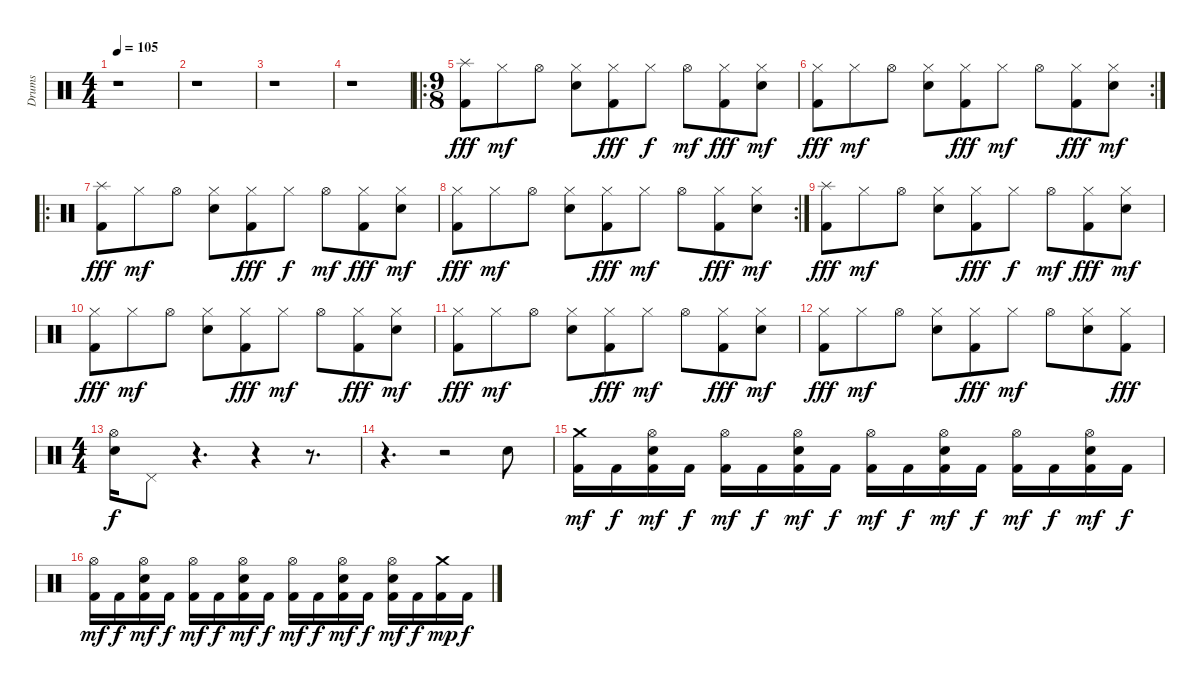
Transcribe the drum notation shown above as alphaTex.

\track ("Drums" "Drums") {instrument percussion}
\staff {score}
\articulation defaults
\ts (4 4)
\tempo 105
\clef neutral
\ks c
r.1{dy mp} |
r.1 |
r.1 |
r.1 |
\ro
\ts (9 8)
("Splash (hit)" "Kick (hit) 2").8{dy fff} "Hi-Hat (closed)".8{dy mf} "Hi-Hat (open)".8 ("Hi-Hat (closed)" "Electric Snare (hit)").8 ("Hi-Hat (closed)" "Kick (hit) 2").8{dy fff} "Hi-Hat (closed)".8{dy f} "Hi-Hat (open)".8{dy mf} ("Hi-Hat (closed)" "Kick (hit) 2").8{dy fff} ("Hi-Hat (closed)" "Electric Snare (hit)").8{dy mf} |
\rc 2
("Hi-Hat (closed)" "Kick (hit) 2").8{dy fff} "Hi-Hat (closed)".8{dy mf} "Hi-Hat (open)".8 ("Hi-Hat (closed)" "Electric Snare (hit)").8 ("Hi-Hat (closed)" "Kick (hit) 2").8{dy fff} "Hi-Hat (closed)".8{dy mf} "Hi-Hat (open)".8 ("Hi-Hat (closed)" "Kick (hit) 2").8{dy fff} ("Hi-Hat (closed)" "Electric Snare (hit)").8{dy mf} |
\ro
("Splash (hit)" "Kick (hit) 2").8{dy fff} "Hi-Hat (closed)".8{dy mf} "Hi-Hat (open)".8 ("Hi-Hat (closed)" "Electric Snare (hit)").8 ("Hi-Hat (closed)" "Kick (hit) 2").8{dy fff} "Hi-Hat (closed)".8{dy f} "Hi-Hat (open)".8{dy mf} ("Hi-Hat (closed)" "Kick (hit) 2").8{dy fff} ("Hi-Hat (closed)" "Electric Snare (hit)").8{dy mf} |
\rc 2
("Hi-Hat (closed)" "Kick (hit) 2").8{dy fff} "Hi-Hat (closed)".8{dy mf} "Hi-Hat (open)".8 ("Hi-Hat (closed)" "Electric Snare (hit)").8 ("Hi-Hat (closed)" "Kick (hit) 2").8{dy fff} "Hi-Hat (closed)".8{dy mf} "Hi-Hat (open)".8 ("Hi-Hat (closed)" "Kick (hit) 2").8{dy fff} ("Hi-Hat (closed)" "Electric Snare (hit)").8{dy mf} |
("Splash (hit)" "Kick (hit) 2").8{dy fff} "Hi-Hat (closed)".8{dy mf} "Hi-Hat (open)".8 ("Hi-Hat (closed)" "Electric Snare (hit)").8 ("Hi-Hat (closed)" "Kick (hit) 2").8{dy fff} "Hi-Hat (closed)".8{dy f} "Hi-Hat (open)".8{dy mf} ("Hi-Hat (closed)" "Kick (hit) 2").8{dy fff} ("Hi-Hat (closed)" "Electric Snare (hit)").8{dy mf} |
("Hi-Hat (closed)" "Kick (hit) 2").8{dy fff} "Hi-Hat (closed)".8{dy mf} "Hi-Hat (open)".8 ("Hi-Hat (closed)" "Electric Snare (hit)").8 ("Hi-Hat (closed)" "Kick (hit) 2").8{dy fff} "Hi-Hat (closed)".8{dy mf} "Hi-Hat (open)".8 ("Hi-Hat (closed)" "Kick (hit) 2").8{dy fff} ("Hi-Hat (closed)" "Electric Snare (hit)").8{dy mf} |
("Hi-Hat (closed)" "Kick (hit) 2").8{dy fff} "Hi-Hat (closed)".8{dy mf} "Hi-Hat (open)".8 ("Hi-Hat (closed)" "Electric Snare (hit)").8 ("Hi-Hat (closed)" "Kick (hit) 2").8{dy fff} "Hi-Hat (closed)".8{dy mf} "Hi-Hat (open)".8 ("Hi-Hat (closed)" "Kick (hit) 2").8{dy fff} ("Hi-Hat (closed)" "Electric Snare (hit)").8{dy mf} |
("Hi-Hat (closed)" "Kick (hit) 2").8{dy fff} "Hi-Hat (closed)".8{dy mf} "Hi-Hat (open)".8 ("Hi-Hat (closed)" "Electric Snare (hit)").8 ("Hi-Hat (closed)" "Kick (hit) 2").8{dy fff} "Hi-Hat (closed)".8{dy mf} "Hi-Hat (open)".8 ("Hi-Hat (closed)" "Electric Snare (hit)").8 ("Hi-Hat (closed)" "Kick (hit) 2").8{dy fff} |
\ts (4 4)
("Hi-Hat (open)" "Electric Snare (hit)").16{dy f} "Pedal Hi-Hat (hit)".8 r.4{d} r.4 r.8{d} |
r.4{d} r.2 "Electric Snare (hit)".8 |
("Crash medium (hit)" "Kick (hit) 2").16{dy mf} "Kick (hit) 2".16{dy f} ("Hi-Hat (open)" "Electric Snare (hit)" "Kick (hit) 2").16{dy mf} "Kick (hit) 2".16{dy f} ("Hi-Hat (open)" "Kick (hit) 2").16{dy mf} "Kick (hit) 2".16{dy f} ("Hi-Hat (open)" "Electric Snare (hit)" "Kick (hit) 2").16{dy mf} "Kick (hit) 2".16{dy f} ("Hi-Hat (open)" "Kick (hit) 2").16{dy mf} "Kick (hit) 2".16{dy f} ("Hi-Hat (open)" "Electric Snare (hit)" "Kick (hit) 2").16{dy mf} "Kick (hit) 2".16{dy f} ("Hi-Hat (open)" "Kick (hit) 2").16{dy mf} "Kick (hit) 2".16{dy f} ("Hi-Hat (open)" "Electric Snare (hit)" "Kick (hit) 2").16{dy mf} "Kick (hit) 2".16{dy f} |
("Hi-Hat (open)" "Kick (hit) 2").16{dy mf} "Kick (hit) 2".16{dy f} ("Hi-Hat (open)" "Electric Snare (hit)" "Kick (hit) 2").16{dy mf} "Kick (hit) 2".16{dy f} ("Hi-Hat (open)" "Kick (hit) 2").16{dy mf} "Kick (hit) 2".16{dy f} ("Hi-Hat (open)" "Electric Snare (hit)" "Kick (hit) 2").16{dy mf} "Kick (hit) 2".16{dy f} ("Hi-Hat (open)" "Kick (hit) 2").16{dy mf} "Kick (hit) 2".16{dy f} ("Hi-Hat (open)" "Electric Snare (hit)" "Kick (hit) 2").16{dy mf} "Kick (hit) 2".16{dy f} ("Hi-Hat (open)" "Electric Snare (hit)" "Kick (hit) 2").16{dy mf} "Kick (hit) 2".16{dy f} ("Crash medium (hit)" "Kick (hit) 2").16{dy mp} "Kick (hit) 2".16{dy f}
